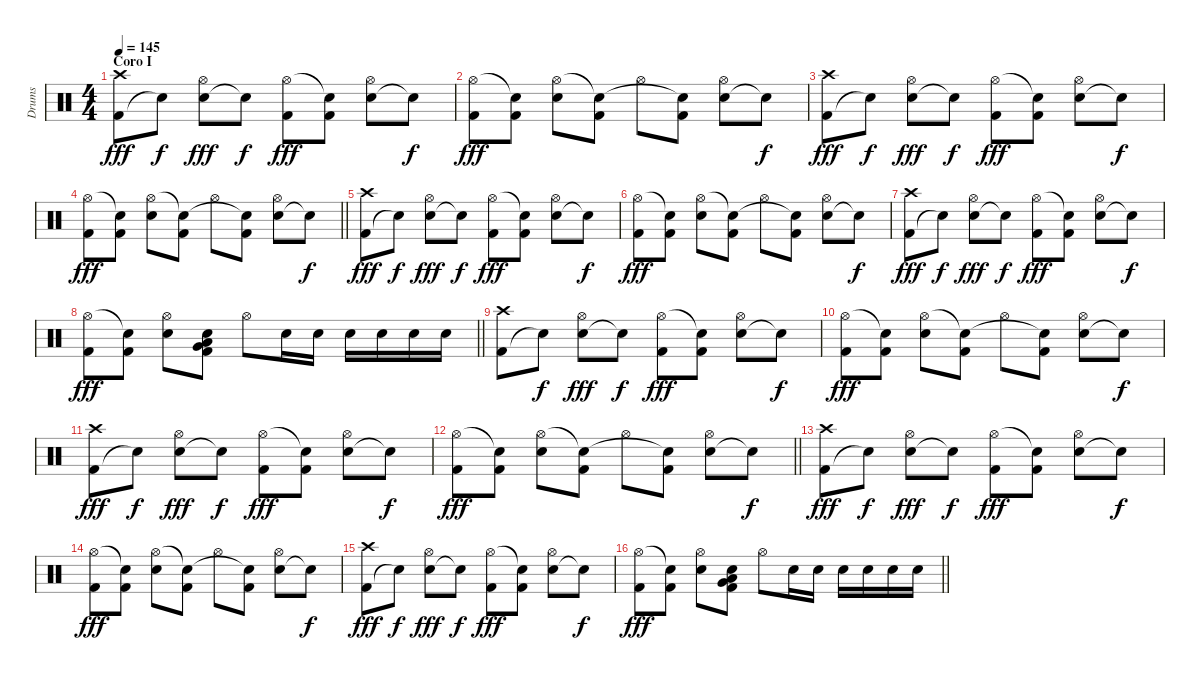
\track ("Drums" "Drums") {instrument percussion}
\staff {score}
\articulation defaults
\ts (4 4)
\section ("" "Coro I")
\tempo 145
\clef neutral
\ks c
("Kick (hit) 2" "Crash high (hit)").8{dy fff} "Snare (hit)"{t}.8{dy f} ("Snare (hit) 2" "Hi-Hat (open)").8{dy fff} "Snare (hit)"{t}.8{dy f} ("Kick (hit) 2" "Hi-Hat (open)").8{dy fff} ("Kick (hit) 2" "Snare (hit)"{t}).8 ("Snare (hit) 2" "Hi-Hat (open)").8 "Snare (hit)"{t}.8{dy f} |
("Kick (hit) 2" "Hi-Hat (open)").8{dy fff} ("Kick (hit) 2" "Snare (hit)"{t}).8 ("Snare (hit) 2" "Hi-Hat (open)").8 ("Kick (hit) 2" "Snare (hit)"{t}).8 "Hi-Hat (open)".8 ("Kick (hit) 2" "Snare (hit)"{t}).8 ("Snare (hit) 2" "Hi-Hat (open)").8 "Snare (hit)"{t}.8{dy f} |
("Kick (hit) 2" "Crash high (hit)").8{dy fff} "Snare (hit)"{t}.8{dy f} ("Snare (hit) 2" "Hi-Hat (open)").8{dy fff} "Snare (hit)"{t}.8{dy f} ("Kick (hit) 2" "Hi-Hat (open)").8{dy fff} ("Kick (hit) 2" "Snare (hit)"{t}).8 ("Snare (hit) 2" "Hi-Hat (open)").8 "Snare (hit)"{t}.8{dy f} |
\barLineRight lightlight
("Kick (hit) 2" "Hi-Hat (open)").8{dy fff} ("Kick (hit) 2" "Snare (hit)"{t}).8 ("Snare (hit) 2" "Hi-Hat (open)").8 ("Kick (hit) 2" "Snare (hit)"{t}).8 "Hi-Hat (open)".8 ("Kick (hit) 2" "Snare (hit)"{t}).8 ("Snare (hit) 2" "Hi-Hat (open)").8 "Snare (hit)"{t}.8{dy f} |
("Kick (hit) 2" "Crash high (hit)").8{dy fff} "Snare (hit)"{t}.8{dy f} ("Snare (hit) 2" "Hi-Hat (open)").8{dy fff} "Snare (hit)"{t}.8{dy f} ("Kick (hit) 2" "Hi-Hat (open)").8{dy fff} ("Kick (hit) 2" "Snare (hit)"{t}).8 ("Snare (hit) 2" "Hi-Hat (open)").8 "Snare (hit)"{t}.8{dy f} |
("Kick (hit) 2" "Hi-Hat (open)").8{dy fff} ("Kick (hit) 2" "Snare (hit)"{t}).8 ("Snare (hit) 2" "Hi-Hat (open)").8 ("Kick (hit) 2" "Snare (hit)"{t}).8 "Hi-Hat (open)".8 ("Kick (hit) 2" "Snare (hit)"{t}).8 ("Snare (hit) 2" "Hi-Hat (open)").8 "Snare (hit)"{t}.8{dy f} |
("Kick (hit) 2" "Crash high (hit)").8{dy fff} "Snare (hit)"{t}.8{dy f} ("Snare (hit) 2" "Hi-Hat (open)").8{dy fff} "Snare (hit)"{t}.8{dy f} ("Kick (hit) 2" "Hi-Hat (open)").8{dy fff} ("Kick (hit) 2" "Snare (hit)"{t}).8 ("Snare (hit) 2" "Hi-Hat (open)").8 "Snare (hit)"{t}.8{dy f} |
\barLineRight lightlight
("Kick (hit) 2" "Hi-Hat (open)").8{dy fff} ("Kick (hit) 2" "Snare (hit)"{t}).8 ("Snare (hit) 2" "Hi-Hat (open)").8 ("Kick (hit) 2" "Very Low Tom (hit)" "Low Tom (hit)" "Snare (hit)").8 "Hi-Hat (open)".8 "Snare (hit) 2".16 "Snare (hit) 2".16 "Snare (hit) 2".16 "Snare (hit) 2".16 "Snare (hit) 2".16 "Snare (hit) 2".16 |
("Kick (hit) 2" "Crash high (hit)").8 "Snare (hit)"{t}.8{dy f} ("Snare (hit) 2" "Hi-Hat (open)").8{dy fff} "Snare (hit)"{t}.8{dy f} ("Kick (hit) 2" "Hi-Hat (open)").8{dy fff} ("Kick (hit) 2" "Snare (hit)"{t}).8 ("Snare (hit) 2" "Hi-Hat (open)").8 "Snare (hit)"{t}.8{dy f} |
("Kick (hit) 2" "Hi-Hat (open)").8{dy fff} ("Kick (hit) 2" "Snare (hit)"{t}).8 ("Snare (hit) 2" "Hi-Hat (open)").8 ("Kick (hit) 2" "Snare (hit)"{t}).8 "Hi-Hat (open)".8 ("Kick (hit) 2" "Snare (hit)"{t}).8 ("Snare (hit) 2" "Hi-Hat (open)").8 "Snare (hit)"{t}.8{dy f} |
("Kick (hit) 2" "Crash high (hit)").8{dy fff} "Snare (hit)"{t}.8{dy f} ("Snare (hit) 2" "Hi-Hat (open)").8{dy fff} "Snare (hit)"{t}.8{dy f} ("Kick (hit) 2" "Hi-Hat (open)").8{dy fff} ("Kick (hit) 2" "Snare (hit)"{t}).8 ("Snare (hit) 2" "Hi-Hat (open)").8 "Snare (hit)"{t}.8{dy f} |
\barLineRight lightlight
("Kick (hit) 2" "Hi-Hat (open)").8{dy fff} ("Kick (hit) 2" "Snare (hit)"{t}).8 ("Snare (hit) 2" "Hi-Hat (open)").8 ("Kick (hit) 2" "Snare (hit)"{t}).8 "Hi-Hat (open)".8 ("Kick (hit) 2" "Snare (hit)"{t}).8 ("Snare (hit) 2" "Hi-Hat (open)").8 "Snare (hit)"{t}.8{dy f} |
("Kick (hit) 2" "Crash high (hit)").8{dy fff} "Snare (hit)"{t}.8{dy f} ("Snare (hit) 2" "Hi-Hat (open)").8{dy fff} "Snare (hit)"{t}.8{dy f} ("Kick (hit) 2" "Hi-Hat (open)").8{dy fff} ("Kick (hit) 2" "Snare (hit)"{t}).8 ("Snare (hit) 2" "Hi-Hat (open)").8 "Snare (hit)"{t}.8{dy f} |
("Kick (hit) 2" "Hi-Hat (open)").8{dy fff} ("Kick (hit) 2" "Snare (hit)"{t}).8 ("Snare (hit) 2" "Hi-Hat (open)").8 ("Kick (hit) 2" "Snare (hit)"{t}).8 "Hi-Hat (open)".8 ("Kick (hit) 2" "Snare (hit)"{t}).8 ("Snare (hit) 2" "Hi-Hat (open)").8 "Snare (hit)"{t}.8{dy f} |
("Kick (hit) 2" "Crash high (hit)").8{dy fff} "Snare (hit)"{t}.8{dy f} ("Snare (hit) 2" "Hi-Hat (open)").8{dy fff} "Snare (hit)"{t}.8{dy f} ("Kick (hit) 2" "Hi-Hat (open)").8{dy fff} ("Kick (hit) 2" "Snare (hit)"{t}).8 ("Snare (hit) 2" "Hi-Hat (open)").8 "Snare (hit)"{t}.8{dy f} |
\barLineRight lightlight
("Kick (hit) 2" "Hi-Hat (open)").8{dy fff} ("Kick (hit) 2" "Snare (hit)"{t}).8 ("Snare (hit) 2" "Hi-Hat (open)").8 ("Kick (hit) 2" "Very Low Tom (hit)" "Low Tom (hit)" "Snare (hit)").8 "Hi-Hat (open)".8 "Snare (hit) 2".16 "Snare (hit) 2".16 "Snare (hit) 2".16 "Snare (hit) 2".16 "Snare (hit) 2".16 "Snare (hit) 2".16
